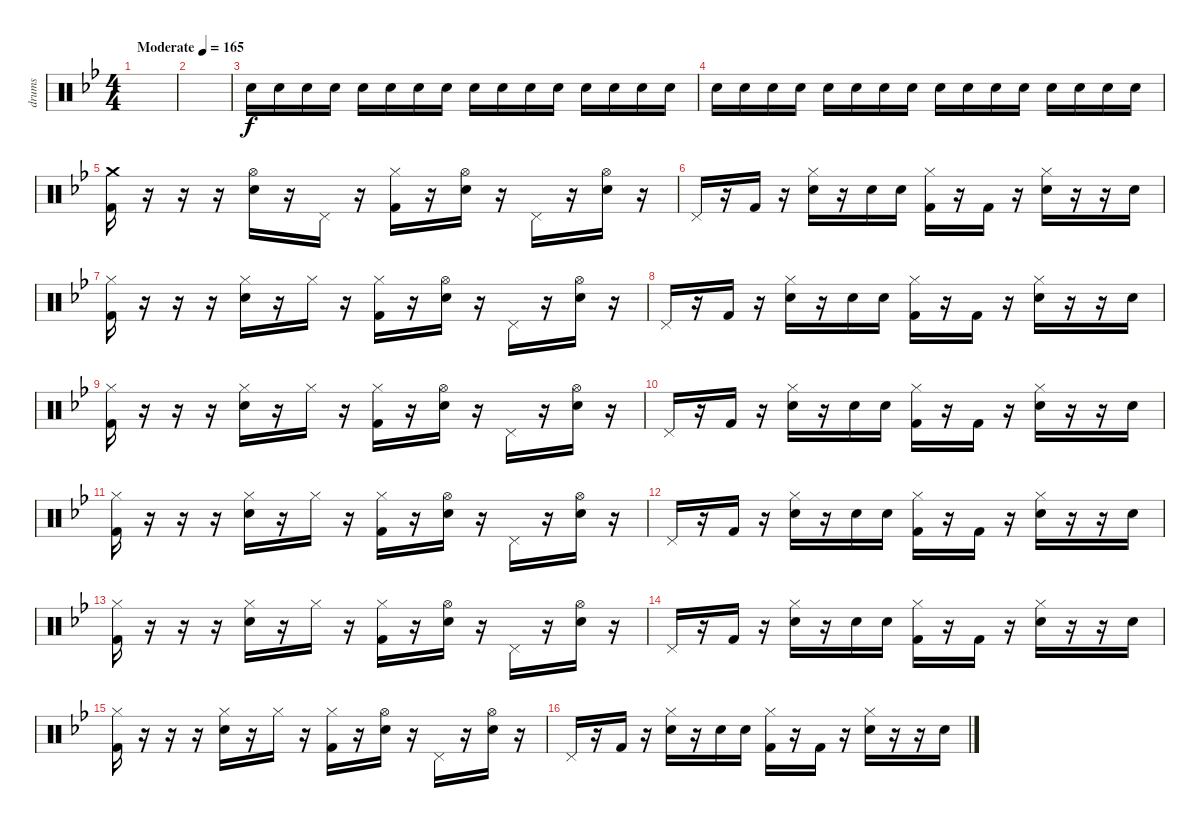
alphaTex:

\track ("drums" "drums") {instrument percussion}
\staff {score}
\articulation defaults
\ts (4 4)
\tempo (165 "Moderate")
\clef neutral
\ks bb
|
|
"Snare (hit) 2".16{volume 1} "Snare (hit) 2".16 "Snare (hit) 2".16{volume 2} "Snare (hit) 2".16 "Snare (hit) 2".16{volume 3} "Snare (hit) 2".16 "Snare (hit) 2".16{volume 4} "Snare (hit) 2".16 "Snare (hit) 2".16{volume 5} "Snare (hit) 2".16 "Snare (hit) 2".16 "Snare (hit) 2".16 "Snare (hit) 2".16{volume 6} "Snare (hit) 2".16 "Snare (hit) 2".16 "Snare (hit) 2".16 |
"Snare (hit) 2".16{volume 7} "Snare (hit) 2".16 "Snare (hit) 2".16 "Snare (hit) 2".16 "Snare (hit) 2".16{volume 8} "Snare (hit) 2".16 "Snare (hit) 2".16 "Snare (hit) 2".16 "Snare (hit) 2".16{volume 9} "Snare (hit) 2".16 "Snare (hit) 2".16 "Snare (hit) 2".16 "Snare (hit) 2".16{volume 10} "Snare (hit) 2".16 "Snare (hit) 2".16 "Snare (hit) 2".16 |
("Crash medium (hit)" "Kick (hit) 2").16{volume 9} r.16 r.16 r.16 ("Hi-Hat (open)" "Snare (hit) 2").16 r.16 "Pedal Hi-Hat (hit)".16 r.16 ("Hi-Hat (closed)" "Kick (hit) 2").16 r.16 ("Hi-Hat (open)" "Snare (hit) 2").16 r.16 "Pedal Hi-Hat (hit)".16 r.16 ("Hi-Hat (open)" "Snare (hit) 2").16 r.16 |
"Pedal Hi-Hat (hit)".16 r.16 "Kick (hit) 2".16 r.16 ("Hi-Hat (closed)" "Snare (hit) 2").16 r.16 "Snare (hit) 2".16 "Snare (hit) 2".16 ("Hi-Hat (closed)" "Kick (hit) 2").16 r.16 "Kick (hit) 2".16 r.16 ("Hi-Hat (closed)" "Snare (hit) 2").16 r.16 r.16 "Snare (hit) 2".16 |
("Hi-Hat (closed)" "Kick (hit) 2").16 r.16 r.16 r.16 ("Hi-Hat (closed)" "Snare (hit) 2").16 r.16 "Hi-Hat (closed)".16 r.16 ("Hi-Hat (closed)" "Kick (hit) 2").16 r.16 ("Hi-Hat (open)" "Snare (hit) 2").16 r.16 "Pedal Hi-Hat (hit)".16 r.16 ("Hi-Hat (open)" "Snare (hit) 2").16 r.16 |
"Pedal Hi-Hat (hit)".16 r.16 "Kick (hit) 2".16 r.16 ("Hi-Hat (closed)" "Snare (hit) 2").16 r.16 "Snare (hit) 2".16 "Snare (hit) 2".16 ("Hi-Hat (closed)" "Kick (hit) 2").16 r.16 "Kick (hit) 2".16 r.16 ("Hi-Hat (closed)" "Snare (hit) 2").16 r.16 r.16 "Snare (hit) 2".16 |
("Hi-Hat (closed)" "Kick (hit) 2").16 r.16 r.16 r.16 ("Hi-Hat (closed)" "Snare (hit) 2").16 r.16 "Hi-Hat (closed)".16 r.16 ("Hi-Hat (closed)" "Kick (hit) 2").16 r.16 ("Hi-Hat (open)" "Snare (hit) 2").16 r.16 "Pedal Hi-Hat (hit)".16 r.16 ("Hi-Hat (open)" "Snare (hit) 2").16 r.16 |
"Pedal Hi-Hat (hit)".16 r.16 "Kick (hit) 2".16 r.16 ("Hi-Hat (closed)" "Snare (hit) 2").16 r.16 "Snare (hit) 2".16 "Snare (hit) 2".16 ("Hi-Hat (closed)" "Kick (hit) 2").16 r.16 "Kick (hit) 2".16 r.16 ("Hi-Hat (closed)" "Snare (hit) 2").16 r.16 r.16 "Snare (hit) 2".16 |
("Hi-Hat (closed)" "Kick (hit) 2").16 r.16 r.16 r.16 ("Hi-Hat (closed)" "Snare (hit) 2").16 r.16 "Hi-Hat (closed)".16 r.16 ("Hi-Hat (closed)" "Kick (hit) 2").16 r.16 ("Hi-Hat (open)" "Snare (hit) 2").16 r.16 "Pedal Hi-Hat (hit)".16 r.16 ("Hi-Hat (open)" "Snare (hit) 2").16 r.16 |
"Pedal Hi-Hat (hit)".16 r.16 "Kick (hit) 2".16 r.16 ("Hi-Hat (closed)" "Snare (hit) 2").16 r.16 "Snare (hit) 2".16 "Snare (hit) 2".16 ("Hi-Hat (closed)" "Kick (hit) 2").16 r.16 "Kick (hit) 2".16 r.16 ("Hi-Hat (closed)" "Snare (hit) 2").16 r.16 r.16 "Snare (hit) 2".16 |
("Hi-Hat (closed)" "Kick (hit) 2").16 r.16 r.16 r.16 ("Hi-Hat (closed)" "Snare (hit) 2").16 r.16 "Hi-Hat (closed)".16 r.16 ("Hi-Hat (closed)" "Kick (hit) 2").16 r.16 ("Hi-Hat (open)" "Snare (hit) 2").16 r.16 "Pedal Hi-Hat (hit)".16 r.16 ("Hi-Hat (open)" "Snare (hit) 2").16 r.16 |
"Pedal Hi-Hat (hit)".16 r.16 "Kick (hit) 2".16 r.16 ("Hi-Hat (closed)" "Snare (hit) 2").16 r.16 "Snare (hit) 2".16 "Snare (hit) 2".16 ("Hi-Hat (closed)" "Kick (hit) 2").16 r.16 "Kick (hit) 2".16 r.16 ("Hi-Hat (closed)" "Snare (hit) 2").16 r.16 r.16 "Snare (hit) 2".16 |
("Hi-Hat (closed)" "Kick (hit) 2").16 r.16 r.16 r.16 ("Hi-Hat (closed)" "Snare (hit) 2").16 r.16 "Hi-Hat (closed)".16 r.16 ("Hi-Hat (closed)" "Kick (hit) 2").16 r.16 ("Hi-Hat (open)" "Snare (hit) 2").16 r.16 "Pedal Hi-Hat (hit)".16 r.16 ("Hi-Hat (open)" "Snare (hit) 2").16 r.16 |
"Pedal Hi-Hat (hit)".16 r.16 "Kick (hit) 2".16 r.16 ("Hi-Hat (closed)" "Snare (hit) 2").16 r.16 "Snare (hit) 2".16 "Snare (hit) 2".16 ("Hi-Hat (closed)" "Kick (hit) 2").16 r.16 "Kick (hit) 2".16 r.16 ("Hi-Hat (closed)" "Snare (hit) 2").16 r.16 r.16 "Snare (hit) 2".16
